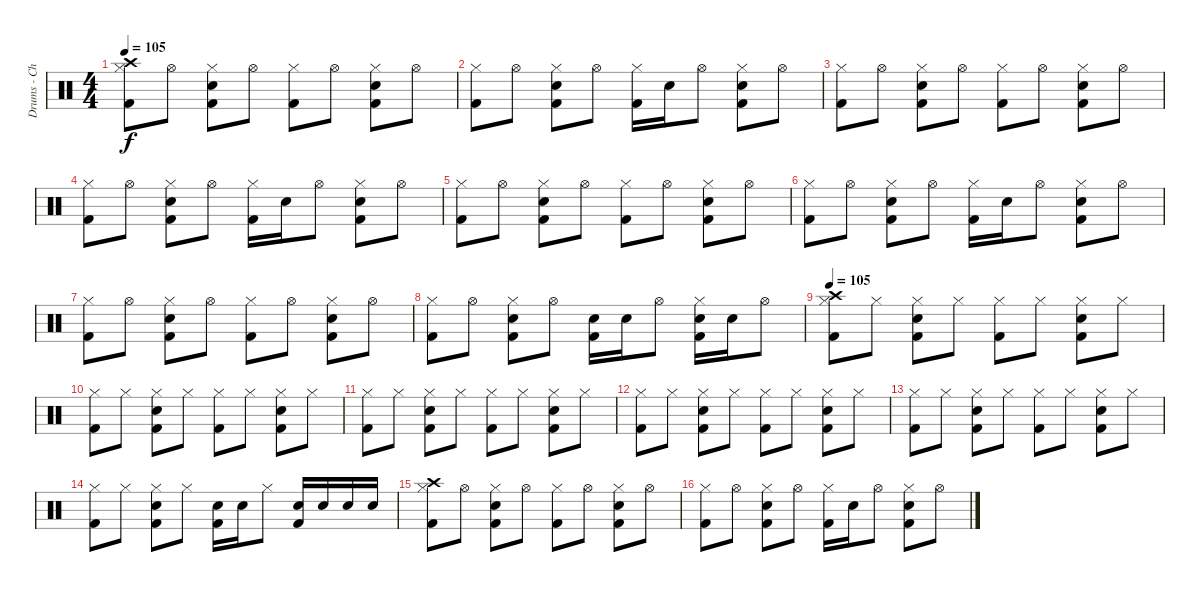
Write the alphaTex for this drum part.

\track ("Drums - Christoph Schneider" "Drums - Ch") {instrument percussion}
\staff {score}
\articulation defaults
\ts (4 4)
\tempo 105
\clef neutral
\ks c
("Crash high (hit)" "Hi-Hat (closed)" "Kick (hit) 2").8{dy f} "Hi-Hat (open)".8 ("Hi-Hat (closed)" "Snare (hit) 2" "Kick (hit) 2").8 "Hi-Hat (open)".8 ("Hi-Hat (closed)" "Kick (hit) 2").8 "Hi-Hat (open)".8 ("Hi-Hat (closed)" "Snare (hit) 2" "Kick (hit) 2").8 "Hi-Hat (open)".8 |
("Hi-Hat (closed)" "Kick (hit) 2").8 "Hi-Hat (open)".8 ("Hi-Hat (closed)" "Snare (hit) 2" "Kick (hit) 2").8 "Hi-Hat (open)".8 ("Hi-Hat (closed)" "Kick (hit) 2").16 "Snare (hit) 2".16 "Hi-Hat (open)".8 ("Hi-Hat (closed)" "Snare (hit) 2" "Kick (hit) 2").8 "Hi-Hat (open)".8 |
("Hi-Hat (closed)" "Kick (hit) 2").8 "Hi-Hat (open)".8 ("Hi-Hat (closed)" "Snare (hit) 2" "Kick (hit) 2").8 "Hi-Hat (open)".8 ("Hi-Hat (closed)" "Kick (hit) 2").8 "Hi-Hat (open)".8 ("Hi-Hat (closed)" "Snare (hit) 2" "Kick (hit) 2").8 "Hi-Hat (open)".8 |
("Hi-Hat (closed)" "Kick (hit) 2").8 "Hi-Hat (open)".8 ("Hi-Hat (closed)" "Snare (hit) 2" "Kick (hit) 2").8 "Hi-Hat (open)".8 ("Hi-Hat (closed)" "Kick (hit) 2").16 "Snare (hit) 2".16 "Hi-Hat (open)".8 ("Hi-Hat (closed)" "Snare (hit) 2" "Kick (hit) 2").8 "Hi-Hat (open)".8 |
("Hi-Hat (closed)" "Kick (hit) 2").8 "Hi-Hat (open)".8 ("Hi-Hat (closed)" "Snare (hit) 2" "Kick (hit) 2").8 "Hi-Hat (open)".8 ("Hi-Hat (closed)" "Kick (hit) 2").8 "Hi-Hat (open)".8 ("Hi-Hat (closed)" "Snare (hit) 2" "Kick (hit) 2").8 "Hi-Hat (open)".8 |
("Hi-Hat (closed)" "Kick (hit) 2").8 "Hi-Hat (open)".8 ("Hi-Hat (closed)" "Snare (hit) 2" "Kick (hit) 2").8 "Hi-Hat (open)".8 ("Hi-Hat (closed)" "Kick (hit) 2").16 "Snare (hit) 2".16 "Hi-Hat (open)".8 ("Hi-Hat (closed)" "Snare (hit) 2" "Kick (hit) 2").8 "Hi-Hat (open)".8 |
("Hi-Hat (closed)" "Kick (hit) 2").8 "Hi-Hat (open)".8 ("Hi-Hat (closed)" "Snare (hit) 2" "Kick (hit) 2").8 "Hi-Hat (open)".8 ("Hi-Hat (closed)" "Kick (hit) 2").8 "Hi-Hat (open)".8 ("Hi-Hat (closed)" "Snare (hit) 2" "Kick (hit) 2").8 "Hi-Hat (open)".8 |
("Hi-Hat (closed)" "Kick (hit) 2").8 "Hi-Hat (open)".8 ("Hi-Hat (closed)" "Snare (hit) 2" "Kick (hit) 2").8 "Hi-Hat (open)".8 ("Snare (hit) 2" "Kick (hit) 2").16 "Snare (hit) 2".16 "Hi-Hat (open)".8 ("Hi-Hat (closed)" "Snare (hit) 2" "Kick (hit) 2").16 "Snare (hit) 2".16 "Hi-Hat (open)".8 |
\tempo 105
("Crash high (hit)" "Hi-Hat (closed)" "Kick (hit) 2").8 "Hi-Hat (closed)".8 ("Hi-Hat (closed)" "Snare (hit) 2" "Kick (hit) 2").8 "Hi-Hat (closed)".8 ("Hi-Hat (closed)" "Kick (hit) 2").8 "Hi-Hat (closed)".8 ("Hi-Hat (closed)" "Snare (hit) 2" "Kick (hit) 2").8 "Hi-Hat (closed)".8 |
("Hi-Hat (closed)" "Kick (hit) 2").8 "Hi-Hat (closed)".8 ("Hi-Hat (closed)" "Snare (hit) 2" "Kick (hit) 2").8 "Hi-Hat (closed)".8 ("Hi-Hat (closed)" "Kick (hit) 2").8 "Hi-Hat (closed)".8 ("Hi-Hat (closed)" "Snare (hit) 2" "Kick (hit) 2").8 "Hi-Hat (closed)".8 |
("Hi-Hat (closed)" "Kick (hit) 2").8 "Hi-Hat (closed)".8 ("Hi-Hat (closed)" "Snare (hit) 2" "Kick (hit) 2").8 "Hi-Hat (closed)".8 ("Hi-Hat (closed)" "Kick (hit) 2").8 "Hi-Hat (closed)".8 ("Hi-Hat (closed)" "Snare (hit) 2" "Kick (hit) 2").8 "Hi-Hat (closed)".8 |
("Hi-Hat (closed)" "Kick (hit) 2").8 "Hi-Hat (closed)".8 ("Hi-Hat (closed)" "Snare (hit) 2" "Kick (hit) 2").8 "Hi-Hat (closed)".8 ("Hi-Hat (closed)" "Kick (hit) 2").8 "Hi-Hat (closed)".8 ("Hi-Hat (closed)" "Snare (hit) 2" "Kick (hit) 2").8 "Hi-Hat (closed)".8 |
("Hi-Hat (closed)" "Kick (hit) 2").8 "Hi-Hat (closed)".8 ("Hi-Hat (closed)" "Snare (hit) 2" "Kick (hit) 2").8 "Hi-Hat (closed)".8 ("Hi-Hat (closed)" "Kick (hit) 2").8 "Hi-Hat (closed)".8 ("Hi-Hat (closed)" "Snare (hit) 2" "Kick (hit) 2").8 "Hi-Hat (closed)".8 |
("Hi-Hat (closed)" "Kick (hit) 2").8 "Hi-Hat (closed)".8 ("Hi-Hat (closed)" "Snare (hit) 2" "Kick (hit) 2").8 "Hi-Hat (closed)".8 ("Snare (hit) 2" "Kick (hit) 2").16 "Snare (hit) 2".16 "Hi-Hat (closed)".8 ("Snare (hit) 2" "Kick (hit) 2").16 "Snare (hit) 2".16 "Snare (hit) 2".16 "Snare (hit) 2".16 |
("Crash high (hit)" "Hi-Hat (closed)" "Kick (hit) 2").8 "Hi-Hat (open)".8 ("Hi-Hat (closed)" "Snare (hit) 2" "Kick (hit) 2").8 "Hi-Hat (open)".8 ("Hi-Hat (closed)" "Kick (hit) 2").8 "Hi-Hat (open)".8 ("Hi-Hat (closed)" "Snare (hit) 2" "Kick (hit) 2").8 "Hi-Hat (open)".8 |
("Hi-Hat (closed)" "Kick (hit) 2").8 "Hi-Hat (open)".8 ("Hi-Hat (closed)" "Snare (hit) 2" "Kick (hit) 2").8 "Hi-Hat (open)".8 ("Hi-Hat (closed)" "Kick (hit) 2").16 "Snare (hit) 2".16 "Hi-Hat (open)".8 ("Hi-Hat (closed)" "Snare (hit) 2" "Kick (hit) 2").8 "Hi-Hat (open)".8
